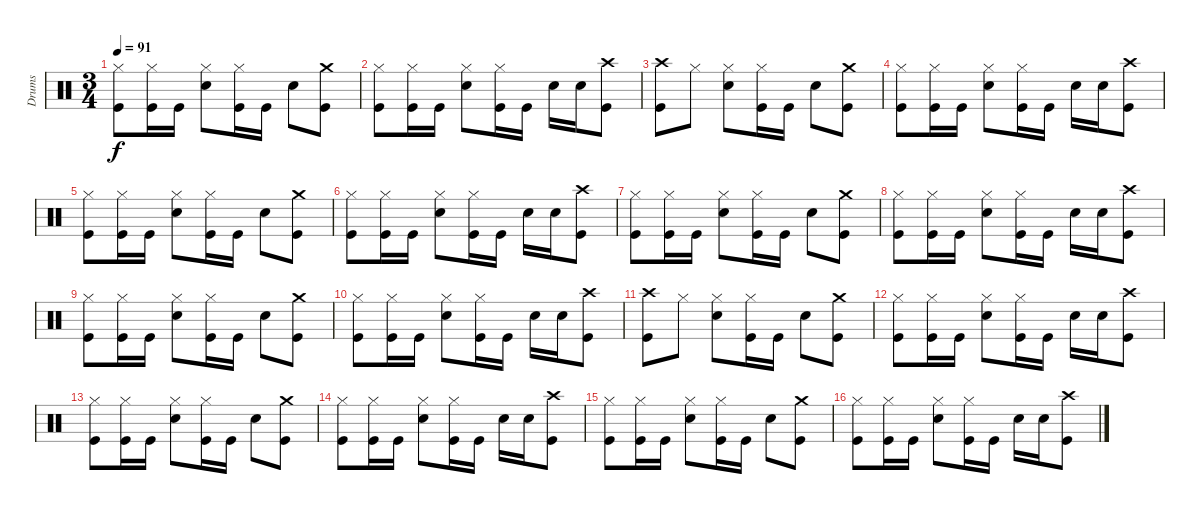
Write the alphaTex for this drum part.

\track ("Drums" "Drums") {instrument percussion}
\staff {score}
\articulation defaults
\ts (3 4)
\tempo 91
\clef neutral
\ks c
("Hi-Hat (closed)" "Kick (hit)").8{dy f} ("Hi-Hat (closed)" "Kick (hit)").16 "Kick (hit)".16 ("Hi-Hat (closed)" "Snare (hit) 2").8 ("Hi-Hat (closed)" "Kick (hit)").16 "Kick (hit)".16 "Snare (hit) 2".8 ("Crash medium (hit)" "Kick (hit)").8 |
("Hi-Hat (closed)" "Kick (hit)").8 ("Hi-Hat (closed)" "Kick (hit)").16 "Kick (hit)".16 ("Hi-Hat (closed)" "Snare (hit) 2").8 ("Hi-Hat (closed)" "Kick (hit)").16 "Kick (hit)".16 "Snare (hit) 2".16 "Snare (hit) 2".16 ("Crash high (hit)" "Kick (hit)").8 |
("Crash high (hit)" "Kick (hit)").8 "Hi-Hat (closed)".8 ("Hi-Hat (closed)" "Snare (hit) 2").8 ("Hi-Hat (closed)" "Kick (hit)").16 "Kick (hit)".16 "Snare (hit) 2".8 ("Crash medium (hit)" "Kick (hit)").8 |
("Hi-Hat (closed)" "Kick (hit)").8 ("Hi-Hat (closed)" "Kick (hit)").16 "Kick (hit)".16 ("Hi-Hat (closed)" "Snare (hit) 2").8 ("Hi-Hat (closed)" "Kick (hit)").16 "Kick (hit)".16 "Snare (hit) 2".16 "Snare (hit) 2".16 ("Crash high (hit)" "Kick (hit)").8 |
("Hi-Hat (closed)" "Kick (hit)").8 ("Hi-Hat (closed)" "Kick (hit)").16 "Kick (hit)".16 ("Hi-Hat (closed)" "Snare (hit) 2").8 ("Hi-Hat (closed)" "Kick (hit)").16 "Kick (hit)".16 "Snare (hit) 2".8 ("Crash medium (hit)" "Kick (hit)").8 |
("Hi-Hat (closed)" "Kick (hit)").8 ("Hi-Hat (closed)" "Kick (hit)").16 "Kick (hit)".16 ("Hi-Hat (closed)" "Snare (hit) 2").8 ("Hi-Hat (closed)" "Kick (hit)").16 "Kick (hit)".16 "Snare (hit) 2".16 "Snare (hit) 2".16 ("Crash high (hit)" "Kick (hit)").8 |
("Hi-Hat (closed)" "Kick (hit)").8 ("Hi-Hat (closed)" "Kick (hit)").16 "Kick (hit)".16 ("Hi-Hat (closed)" "Snare (hit) 2").8 ("Hi-Hat (closed)" "Kick (hit)").16 "Kick (hit)".16 "Snare (hit) 2".8 ("Crash medium (hit)" "Kick (hit)").8 |
("Hi-Hat (closed)" "Kick (hit)").8 ("Hi-Hat (closed)" "Kick (hit)").16 "Kick (hit)".16 ("Hi-Hat (closed)" "Snare (hit) 2").8 ("Hi-Hat (closed)" "Kick (hit)").16 "Kick (hit)".16 "Snare (hit) 2".16 "Snare (hit) 2".16 ("Crash high (hit)" "Kick (hit)").8 |
("Hi-Hat (closed)" "Kick (hit)").8 ("Hi-Hat (closed)" "Kick (hit)").16 "Kick (hit)".16 ("Hi-Hat (closed)" "Snare (hit) 2").8 ("Hi-Hat (closed)" "Kick (hit)").16 "Kick (hit)".16 "Snare (hit) 2".8 ("Crash medium (hit)" "Kick (hit)").8 |
("Hi-Hat (closed)" "Kick (hit)").8 ("Hi-Hat (closed)" "Kick (hit)").16 "Kick (hit)".16 ("Hi-Hat (closed)" "Snare (hit) 2").8 ("Hi-Hat (closed)" "Kick (hit)").16 "Kick (hit)".16 "Snare (hit) 2".16 "Snare (hit) 2".16 ("Crash high (hit)" "Kick (hit)").8 |
("Crash high (hit)" "Kick (hit)").8 "Hi-Hat (closed)".8 ("Hi-Hat (closed)" "Snare (hit) 2").8 ("Hi-Hat (closed)" "Kick (hit)").16 "Kick (hit)".16 "Snare (hit) 2".8 ("Crash medium (hit)" "Kick (hit)").8 |
("Hi-Hat (closed)" "Kick (hit)").8 ("Hi-Hat (closed)" "Kick (hit)").16 "Kick (hit)".16 ("Hi-Hat (closed)" "Snare (hit) 2").8 ("Hi-Hat (closed)" "Kick (hit)").16 "Kick (hit)".16 "Snare (hit) 2".16 "Snare (hit) 2".16 ("Crash high (hit)" "Kick (hit)").8 |
("Hi-Hat (closed)" "Kick (hit)").8 ("Hi-Hat (closed)" "Kick (hit)").16 "Kick (hit)".16 ("Hi-Hat (closed)" "Snare (hit) 2").8 ("Hi-Hat (closed)" "Kick (hit)").16 "Kick (hit)".16 "Snare (hit) 2".8 ("Crash medium (hit)" "Kick (hit)").8 |
("Hi-Hat (closed)" "Kick (hit)").8 ("Hi-Hat (closed)" "Kick (hit)").16 "Kick (hit)".16 ("Hi-Hat (closed)" "Snare (hit) 2").8 ("Hi-Hat (closed)" "Kick (hit)").16 "Kick (hit)".16 "Snare (hit) 2".16 "Snare (hit) 2".16 ("Crash high (hit)" "Kick (hit)").8 |
("Hi-Hat (closed)" "Kick (hit)").8 ("Hi-Hat (closed)" "Kick (hit)").16 "Kick (hit)".16 ("Hi-Hat (closed)" "Snare (hit) 2").8 ("Hi-Hat (closed)" "Kick (hit)").16 "Kick (hit)".16 "Snare (hit) 2".8 ("Crash medium (hit)" "Kick (hit)").8 |
("Hi-Hat (closed)" "Kick (hit)").8 ("Hi-Hat (closed)" "Kick (hit)").16 "Kick (hit)".16 ("Hi-Hat (closed)" "Snare (hit) 2").8 ("Hi-Hat (closed)" "Kick (hit)").16 "Kick (hit)".16 "Snare (hit) 2".16 "Snare (hit) 2".16 ("Crash high (hit)" "Kick (hit)").8
